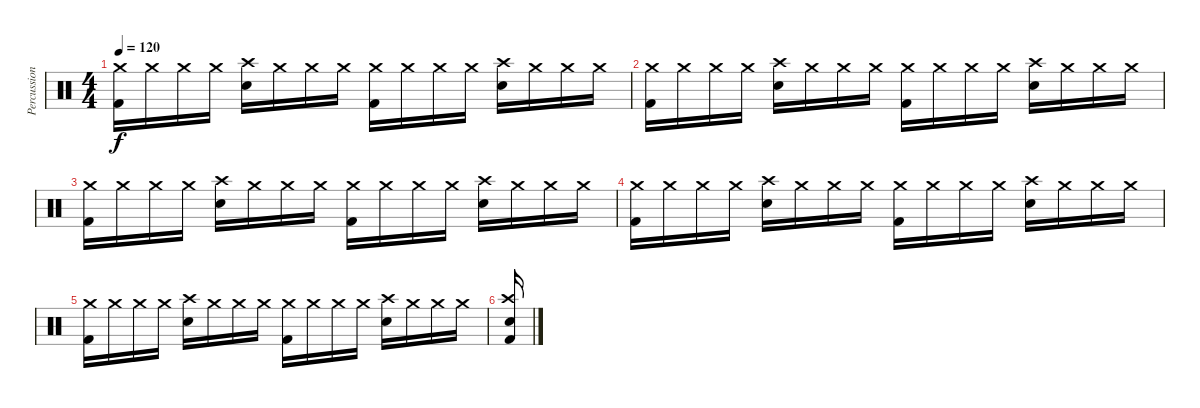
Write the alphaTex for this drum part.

\track ("Percussion" "Percussion") {instrument percussion}
\staff {score}
\articulation defaults
\ts (4 4)
\tempo 120
\clef neutral
\ks c
("Crash medium (hit)" "Kick (hit) 2").16{dy f} "Crash medium (hit)".16 "Crash medium (hit)".16 "Crash medium (hit)".16 ("Crash high (hit)" "Electric Snare (hit)").16 "Crash medium (hit)".16 "Crash medium (hit)".16 "Crash medium (hit)".16 ("Crash medium (hit)" "Kick (hit) 2").16 "Crash medium (hit)".16 "Crash medium (hit)".16 "Crash medium (hit)".16 ("Crash high (hit)" "Electric Snare (hit)").16 "Crash medium (hit)".16 "Crash medium (hit)".16 "Crash medium (hit)".16 |
("Crash medium (hit)" "Kick (hit) 2").16 "Crash medium (hit)".16 "Crash medium (hit)".16 "Crash medium (hit)".16 ("Crash high (hit)" "Electric Snare (hit)").16 "Crash medium (hit)".16 "Crash medium (hit)".16 "Crash medium (hit)".16 ("Crash medium (hit)" "Kick (hit) 2").16 "Crash medium (hit)".16 "Crash medium (hit)".16 "Crash medium (hit)".16 ("Crash high (hit)" "Electric Snare (hit)").16 "Crash medium (hit)".16 "Crash medium (hit)".16 "Crash medium (hit)".16 |
("Crash medium (hit)" "Kick (hit) 2").16 "Crash medium (hit)".16 "Crash medium (hit)".16 "Crash medium (hit)".16 ("Crash high (hit)" "Electric Snare (hit)").16 "Crash medium (hit)".16 "Crash medium (hit)".16 "Crash medium (hit)".16 ("Crash medium (hit)" "Kick (hit) 2").16 "Crash medium (hit)".16 "Crash medium (hit)".16 "Crash medium (hit)".16 ("Crash high (hit)" "Electric Snare (hit)").16 "Crash medium (hit)".16 "Crash medium (hit)".16 "Crash medium (hit)".16 |
("Crash medium (hit)" "Kick (hit) 2").16 "Crash medium (hit)".16 "Crash medium (hit)".16 "Crash medium (hit)".16 ("Crash high (hit)" "Electric Snare (hit)").16 "Crash medium (hit)".16 "Crash medium (hit)".16 "Crash medium (hit)".16 ("Crash medium (hit)" "Kick (hit) 2").16 "Crash medium (hit)".16 "Crash medium (hit)".16 "Crash medium (hit)".16 ("Crash high (hit)" "Electric Snare (hit)").16 "Crash medium (hit)".16 "Crash medium (hit)".16 "Crash medium (hit)".16 |
("Crash medium (hit)" "Kick (hit) 2").16 "Crash medium (hit)".16 "Crash medium (hit)".16 "Crash medium (hit)".16 ("Crash high (hit)" "Electric Snare (hit)").16 "Crash medium (hit)".16 "Crash medium (hit)".16 "Crash medium (hit)".16 ("Crash medium (hit)" "Kick (hit) 2").16 "Crash medium (hit)".16 "Crash medium (hit)".16 "Crash medium (hit)".16 ("Crash high (hit)" "Electric Snare (hit)").16 "Crash medium (hit)".16 "Crash medium (hit)".16 "Crash medium (hit)".16 |
("Crash high (hit)" "Snare (hit) 2" "Kick (hit) 2").16
